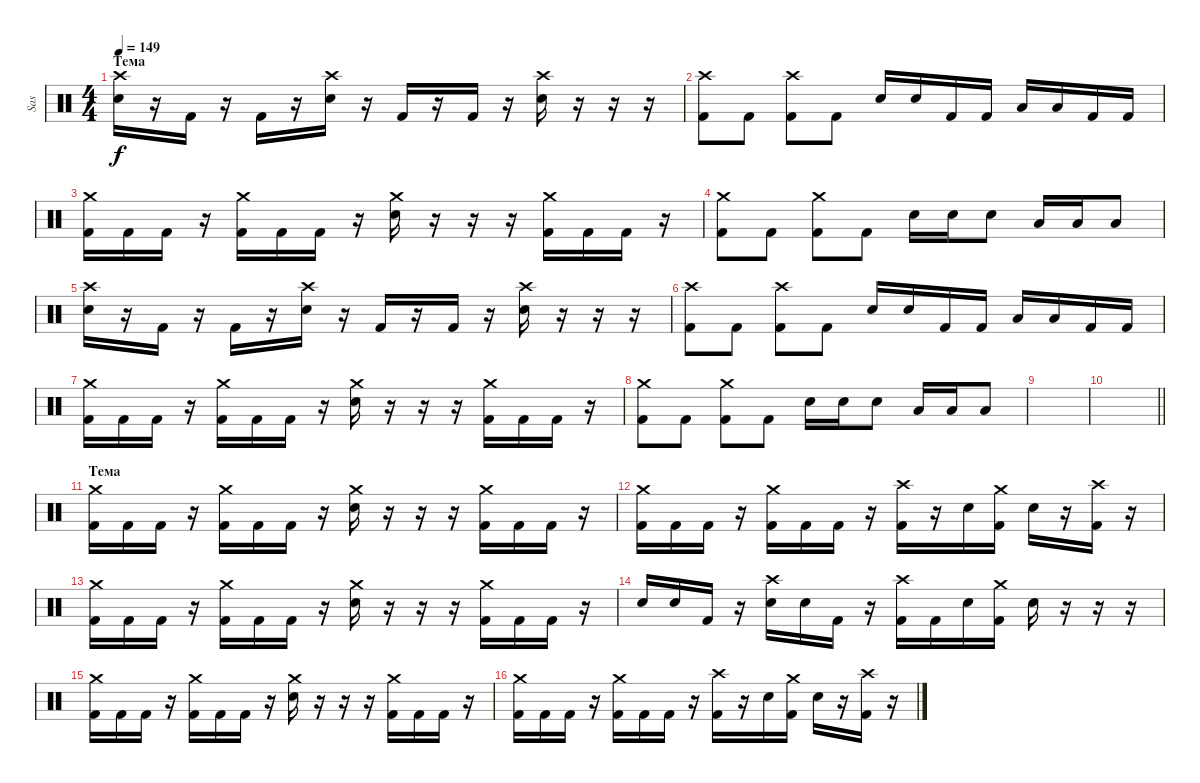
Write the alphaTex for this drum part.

\track ("Sas" "Sas") {instrument percussion}
\staff {score}
\articulation defaults
\ts (4 4)
\section ("" "Тема")
\tempo 149
\clef neutral
\ks c
("Crash high (hit)" "Snare (hit) 2").16{dy f} r.16 "Kick (hit) 2".16 r.16 "Kick (hit) 2".16 r.16 ("Crash high (hit)" "Snare (hit) 2").16 r.16 "Kick (hit) 2".16 r.16 "Kick (hit) 2".16 r.16 ("Crash high (hit)" "Snare (hit) 2").16 r.16 r.16 r.16 |
("Crash high (hit)" "Kick (hit) 2").8 "Kick (hit) 2".8 ("Crash high (hit)" "Kick (hit) 2").8 "Kick (hit) 2".8 "Snare (hit) 2".16 "Snare (hit) 2".16 "Kick (hit) 2".16 "Kick (hit) 2".16 "Low Tom (hit)".16 "Low Tom (hit)".16 "Kick (hit) 2".16 "Kick (hit) 2".16 |
("Crash medium (hit)" "Kick (hit) 2").16 "Kick (hit) 2".16 "Kick (hit) 2".16 r.16 ("Crash medium (hit)" "Kick (hit) 2").16 "Kick (hit) 2".16 "Kick (hit) 2".16 r.16 ("Crash medium (hit)" "Snare (hit) 2").16 r.16 r.16 r.16 ("Crash medium (hit)" "Kick (hit) 2").16 "Kick (hit) 2".16 "Kick (hit) 2".16 r.16 |
("Crash medium (hit)" "Kick (hit) 2").8 "Kick (hit) 2".8 ("Crash medium (hit)" "Kick (hit) 2").8 "Kick (hit) 2".8 "Snare (hit) 2".16 "Snare (hit) 2".16 "Snare (hit) 2".8 "Low Tom (hit)".16 "Low Tom (hit)".16 "Low Tom (hit)".8 |
("Crash high (hit)" "Snare (hit) 2").16 r.16 "Kick (hit) 2".16 r.16 "Kick (hit) 2".16 r.16 ("Crash high (hit)" "Snare (hit) 2").16 r.16 "Kick (hit) 2".16 r.16 "Kick (hit) 2".16 r.16 ("Crash high (hit)" "Snare (hit) 2").16 r.16 r.16 r.16 |
("Crash high (hit)" "Kick (hit) 2").8 "Kick (hit) 2".8 ("Crash high (hit)" "Kick (hit) 2").8 "Kick (hit) 2".8 "Snare (hit) 2".16 "Snare (hit) 2".16 "Kick (hit) 2".16 "Kick (hit) 2".16 "Low Tom (hit)".16 "Low Tom (hit)".16 "Kick (hit) 2".16 "Kick (hit) 2".16 |
("Crash medium (hit)" "Kick (hit) 2").16 "Kick (hit) 2".16 "Kick (hit) 2".16 r.16 ("Crash medium (hit)" "Kick (hit) 2").16 "Kick (hit) 2".16 "Kick (hit) 2".16 r.16 ("Crash medium (hit)" "Snare (hit) 2").16 r.16 r.16 r.16 ("Crash medium (hit)" "Kick (hit) 2").16 "Kick (hit) 2".16 "Kick (hit) 2".16 r.16 |
("Crash medium (hit)" "Kick (hit) 2").8 "Kick (hit) 2".8 ("Crash medium (hit)" "Kick (hit) 2").8 "Kick (hit) 2".8 "Snare (hit) 2".16 "Snare (hit) 2".16 "Snare (hit) 2".8 "Low Tom (hit)".16 "Low Tom (hit)".16 "Low Tom (hit)".8 |
|
\barLineRight lightlight
|
\section ("" "Тема")
("Crash medium (hit)" "Kick (hit) 2").16 "Kick (hit) 2".16 "Kick (hit) 2".16 r.16 ("Crash medium (hit)" "Kick (hit) 2").16 "Kick (hit) 2".16 "Kick (hit) 2".16 r.16 ("Crash medium (hit)" "Snare (hit) 2").16 r.16 r.16 r.16 ("Crash medium (hit)" "Kick (hit) 2").16 "Kick (hit) 2".16 "Kick (hit) 2".16 r.16 |
("Crash medium (hit)" "Kick (hit) 2").16 "Kick (hit) 2".16 "Kick (hit) 2".16 r.16 ("Crash medium (hit)" "Kick (hit) 2").16 "Kick (hit) 2".16 "Kick (hit) 2".16 r.16 ("Crash high (hit)" "Kick (hit) 2").16 r.16 "Snare (hit) 2".16 ("Crash medium (hit)" "Kick (hit) 2").16 "Snare (hit) 2".16 r.16 ("Crash high (hit)" "Kick (hit) 2").16 r.16 |
("Crash medium (hit)" "Kick (hit) 2").16 "Kick (hit) 2".16 "Kick (hit) 2".16 r.16 ("Crash medium (hit)" "Kick (hit) 2").16 "Kick (hit) 2".16 "Kick (hit) 2".16 r.16 ("Crash medium (hit)" "Snare (hit) 2").16 r.16 r.16 r.16 ("Crash medium (hit)" "Kick (hit) 2").16 "Kick (hit) 2".16 "Kick (hit) 2".16 r.16 |
"Snare (hit) 2".16 "Snare (hit) 2".16 "Kick (hit) 2".16 r.16 ("Crash high (hit)" "Snare (hit) 2").16 "Snare (hit) 2".16 "Kick (hit) 2".16 r.16 ("Crash high (hit)" "Kick (hit) 2").16 "Kick (hit) 2".16 "Snare (hit) 2".16 ("Crash medium (hit)" "Kick (hit) 2").16 "Snare (hit) 2".16 r.16 r.16 r.16 |
("Crash medium (hit)" "Kick (hit) 2").16 "Kick (hit) 2".16 "Kick (hit) 2".16 r.16 ("Crash medium (hit)" "Kick (hit) 2").16 "Kick (hit) 2".16 "Kick (hit) 2".16 r.16 ("Crash medium (hit)" "Snare (hit) 2").16 r.16 r.16 r.16 ("Crash medium (hit)" "Kick (hit) 2").16 "Kick (hit) 2".16 "Kick (hit) 2".16 r.16 |
("Crash medium (hit)" "Kick (hit) 2").16 "Kick (hit) 2".16 "Kick (hit) 2".16 r.16 ("Crash medium (hit)" "Kick (hit) 2").16 "Kick (hit) 2".16 "Kick (hit) 2".16 r.16 ("Crash high (hit)" "Kick (hit) 2").16 r.16 "Snare (hit) 2".16 ("Crash medium (hit)" "Kick (hit) 2").16 "Snare (hit) 2".16 r.16 ("Crash high (hit)" "Kick (hit) 2").16 r.16
